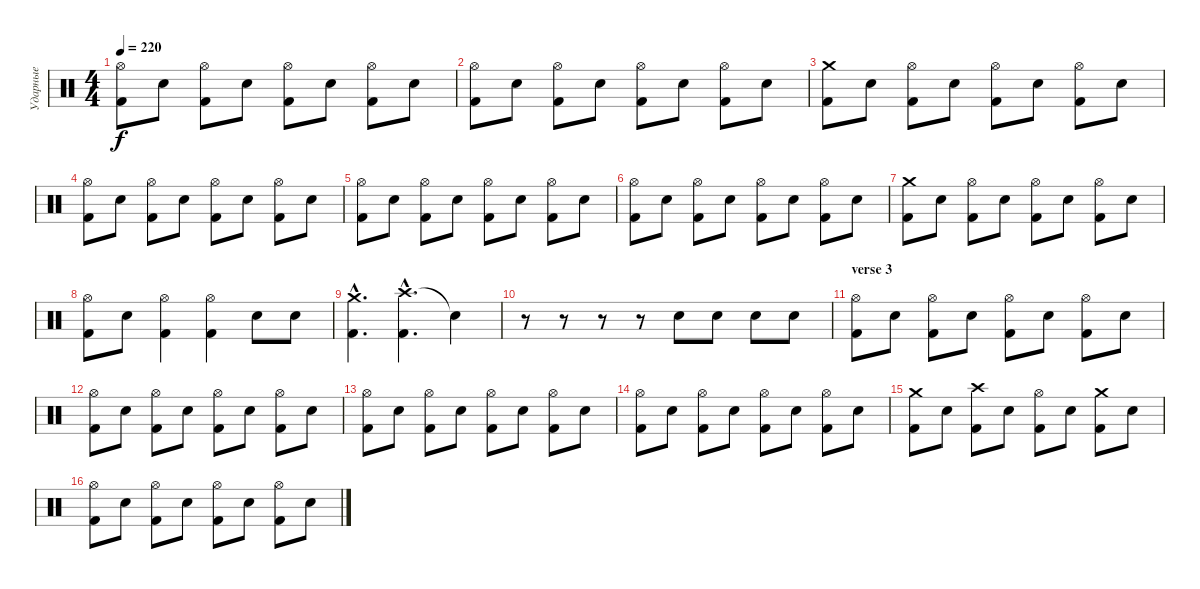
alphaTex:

\track ("Ударные" "Ударные") {instrument percussion}
\staff {score}
\articulation defaults
\ts (4 4)
\tempo 220
\clef neutral
\ks c
("Hi-Hat (open)" "Kick (hit) 2").8{dy f} "Electric Snare (hit)".8 ("Hi-Hat (open)" "Kick (hit) 2").8 "Electric Snare (hit)".8 ("Hi-Hat (open)" "Kick (hit) 2").8 "Electric Snare (hit)".8 ("Hi-Hat (open)" "Kick (hit) 2").8 "Electric Snare (hit)".8 |
("Hi-Hat (open)" "Kick (hit) 2").8 "Electric Snare (hit)".8 ("Hi-Hat (open)" "Kick (hit) 2").8 "Electric Snare (hit)".8 ("Hi-Hat (open)" "Kick (hit) 2").8 "Electric Snare (hit)".8 ("Hi-Hat (open)" "Kick (hit) 2").8 "Electric Snare (hit)".8 |
("Crash medium (hit)" "Kick (hit) 2").8 "Electric Snare (hit)".8 ("Hi-Hat (open)" "Kick (hit) 2").8 "Electric Snare (hit)".8 ("Hi-Hat (open)" "Kick (hit) 2").8 "Electric Snare (hit)".8 ("Hi-Hat (open)" "Kick (hit) 2").8 "Electric Snare (hit)".8 |
("Hi-Hat (open)" "Kick (hit) 2").8 "Electric Snare (hit)".8 ("Hi-Hat (open)" "Kick (hit) 2").8 "Electric Snare (hit)".8 ("Hi-Hat (open)" "Kick (hit) 2").8 "Electric Snare (hit)".8 ("Hi-Hat (open)" "Kick (hit) 2").8 "Electric Snare (hit)".8 |
("Hi-Hat (open)" "Kick (hit) 2").8 "Electric Snare (hit)".8 ("Hi-Hat (open)" "Kick (hit) 2").8 "Electric Snare (hit)".8 ("Hi-Hat (open)" "Kick (hit) 2").8 "Electric Snare (hit)".8 ("Hi-Hat (open)" "Kick (hit) 2").8 "Electric Snare (hit)".8 |
("Hi-Hat (open)" "Kick (hit) 2").8 "Electric Snare (hit)".8 ("Hi-Hat (open)" "Kick (hit) 2").8 "Electric Snare (hit)".8 ("Hi-Hat (open)" "Kick (hit) 2").8 "Electric Snare (hit)".8 ("Hi-Hat (open)" "Kick (hit) 2").8 "Electric Snare (hit)".8 |
("Crash medium (hit)" "Kick (hit) 2").8 "Electric Snare (hit)".8 ("Hi-Hat (open)" "Kick (hit) 2").8 "Electric Snare (hit)".8 ("Hi-Hat (open)" "Kick (hit) 2").8 "Electric Snare (hit)".8 ("Hi-Hat (open)" "Kick (hit) 2").8 "Electric Snare (hit)".8 |
("Hi-Hat (open)" "Kick (hit) 2").8 "Electric Snare (hit)".8 ("Hi-Hat (open)" "Kick (hit) 2").4 ("Hi-Hat (open)" "Kick (hit) 2").4 "Electric Snare (hit)".8 "Electric Snare (hit)".8 |
("Crash medium (hit)"{hac} "Kick (hit) 2"{hac}).4{d} ("Crash high (hit)"{hac} "Kick (hit) 2"{hac}).4{d} "Snare (hit)"{t}.4 |
r.8 r.8 r.8 r.8 "Electric Snare (hit)".8 "Electric Snare (hit)".8 "Electric Snare (hit)".8 "Electric Snare (hit)".8 |
\section ("" "verse 3")
("Hi-Hat (open)" "Kick (hit) 2").8 "Electric Snare (hit)".8 ("Hi-Hat (open)" "Kick (hit) 2").8 "Electric Snare (hit)".8 ("Hi-Hat (open)" "Kick (hit) 2").8 "Electric Snare (hit)".8 ("Hi-Hat (open)" "Kick (hit) 2").8 "Electric Snare (hit)".8 |
("Hi-Hat (open)" "Kick (hit) 2").8 "Electric Snare (hit)".8 ("Hi-Hat (open)" "Kick (hit) 2").8 "Electric Snare (hit)".8 ("Hi-Hat (open)" "Kick (hit) 2").8 "Electric Snare (hit)".8 ("Hi-Hat (open)" "Kick (hit) 2").8 "Electric Snare (hit)".8 |
("Hi-Hat (open)" "Kick (hit) 2").8 "Electric Snare (hit)".8 ("Hi-Hat (open)" "Kick (hit) 2").8 "Electric Snare (hit)".8 ("Hi-Hat (open)" "Kick (hit) 2").8 "Electric Snare (hit)".8 ("Hi-Hat (open)" "Kick (hit) 2").8 "Electric Snare (hit)".8 |
("Hi-Hat (open)" "Kick (hit) 2").8 "Electric Snare (hit)".8 ("Hi-Hat (open)" "Kick (hit) 2").8 "Electric Snare (hit)".8 ("Hi-Hat (open)" "Kick (hit) 2").8 "Electric Snare (hit)".8 ("Hi-Hat (open)" "Kick (hit) 2").8 "Electric Snare (hit)".8 |
("Crash medium (hit)" "Kick (hit) 2").8 "Electric Snare (hit)".8 ("Crash high (hit)" "Kick (hit) 2").8 "Electric Snare (hit)".8 ("Hi-Hat (open)" "Kick (hit) 2").8 "Electric Snare (hit)".8 ("Crash medium (hit)" "Kick (hit) 2").8 "Electric Snare (hit)".8 |
("Hi-Hat (open)" "Kick (hit) 2").8 "Electric Snare (hit)".8 ("Hi-Hat (open)" "Kick (hit) 2").8 "Electric Snare (hit)".8 ("Hi-Hat (open)" "Kick (hit) 2").8 "Electric Snare (hit)".8 ("Hi-Hat (open)" "Kick (hit) 2").8 "Electric Snare (hit)".8
